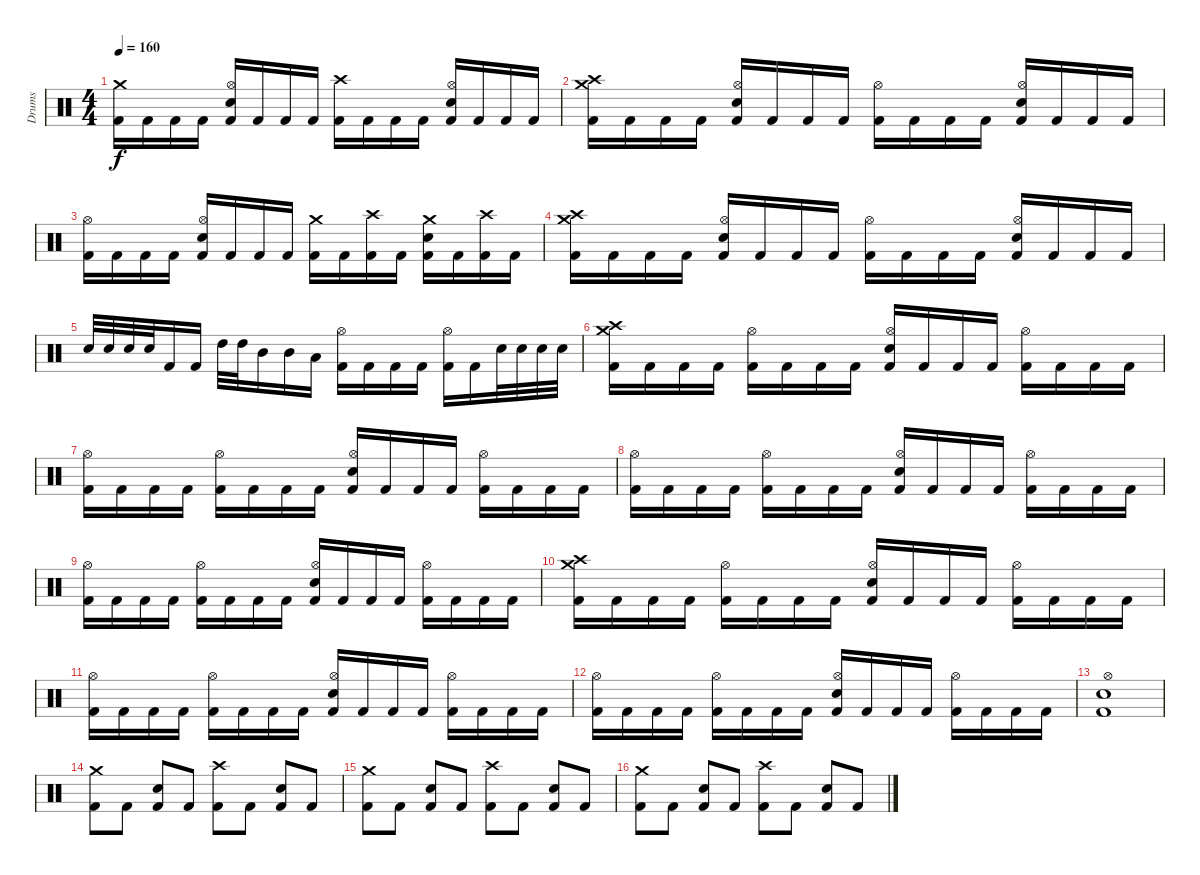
\track ("Drums" "Drums") {instrument percussion}
\staff {score}
\articulation defaults
\ts (4 4)
\tempo 160
\clef neutral
\ks c
("Crash medium (hit)" "Kick (hit) 2").16{dy f} "Kick (hit) 2".16 "Kick (hit) 2".16 "Kick (hit) 2".16 ("Hi-Hat (open)" "Kick (hit) 2" "Snare (hit) 2").16 "Kick (hit) 2".16 "Kick (hit) 2".16 "Kick (hit) 2".16 ("Crash high (hit)" "Kick (hit) 2").16 "Kick (hit) 2".16 "Kick (hit) 2".16 "Kick (hit) 2".16 ("Hi-Hat (open)" "Kick (hit) 2" "Snare (hit) 2").16 "Kick (hit) 2".16 "Kick (hit) 2".16 "Kick (hit) 2".16 |
("Crash medium (hit)" "Crash high (hit)" "Kick (hit) 2").16 "Kick (hit) 2".16 "Kick (hit) 2".16 "Kick (hit) 2".16 ("Hi-Hat (open)" "Kick (hit) 2" "Snare (hit) 2").16 "Kick (hit) 2".16 "Kick (hit) 2".16 "Kick (hit) 2".16 ("Hi-Hat (open)" "Kick (hit) 2").16 "Kick (hit) 2".16 "Kick (hit) 2".16 "Kick (hit) 2".16 ("Hi-Hat (open)" "Kick (hit) 2" "Snare (hit) 2").16 "Kick (hit) 2".16 "Kick (hit) 2".16 "Kick (hit) 2".16 |
("Hi-Hat (open)" "Kick (hit) 2").16 "Kick (hit) 2".16 "Kick (hit) 2".16 "Kick (hit) 2".16 ("Hi-Hat (open)" "Kick (hit) 2" "Snare (hit) 2").16 "Kick (hit) 2".16 "Kick (hit) 2".16 "Kick (hit) 2".16 ("Crash medium (hit)" "Kick (hit) 2").16 "Kick (hit) 2".16 ("Crash high (hit)" "Kick (hit) 2").16 "Kick (hit) 2".16 ("Crash medium (hit)" "Kick (hit) 2" "Snare (hit) 2").16 "Kick (hit) 2".16 ("Crash high (hit)" "Kick (hit) 2").16 "Kick (hit) 2".16 |
("Crash medium (hit)" "Crash high (hit)" "Kick (hit) 2").16 "Kick (hit) 2".16 "Kick (hit) 2".16 "Kick (hit) 2".16 ("Hi-Hat (open)" "Kick (hit) 2" "Snare (hit) 2").16 "Kick (hit) 2".16 "Kick (hit) 2".16 "Kick (hit) 2".16 ("Hi-Hat (open)" "Kick (hit) 2").16 "Kick (hit) 2".16 "Kick (hit) 2".16 "Kick (hit) 2".16 ("Hi-Hat (open)" "Kick (hit) 2" "Snare (hit) 2").16 "Kick (hit) 2".16 "Kick (hit) 2".16 "Kick (hit) 2".16 |
"Snare (hit) 2".32 "Snare (hit) 2".32 "Snare (hit) 2".32 "Snare (hit) 2".32 "Kick (hit) 2".16 "Kick (hit) 2".16 "High Tom (hit)".32 "High Tom (hit)".32 "Mid Tom (hit)".16 "Mid Tom (hit)".16 "Low Tom (hit)".16 ("Hi-Hat (open)" "Kick (hit) 2").16 "Kick (hit) 2".16 "Kick (hit) 2".16 "Kick (hit) 2".16 ("Hi-Hat (open)" "Kick (hit) 2").16 "Kick (hit) 2".16 "Snare (hit) 2".32 "Snare (hit) 2".32 "Snare (hit) 2".32 "Snare (hit) 2".32 |
("Crash medium (hit)" "Crash high (hit)" "Kick (hit) 2").16 "Kick (hit) 2".16 "Kick (hit) 2".16 "Kick (hit) 2".16 ("Hi-Hat (open)" "Kick (hit) 2").16 "Kick (hit) 2".16 "Kick (hit) 2".16 "Kick (hit) 2".16 ("Hi-Hat (open)" "Kick (hit) 2" "Snare (hit) 2").16 "Kick (hit) 2".16 "Kick (hit) 2".16 "Kick (hit) 2".16 ("Hi-Hat (open)" "Kick (hit) 2").16 "Kick (hit) 2".16 "Kick (hit) 2".16 "Kick (hit) 2".16 |
("Hi-Hat (open)" "Kick (hit) 2").16 "Kick (hit) 2".16 "Kick (hit) 2".16 "Kick (hit) 2".16 ("Hi-Hat (open)" "Kick (hit) 2").16 "Kick (hit) 2".16 "Kick (hit) 2".16 "Kick (hit) 2".16 ("Hi-Hat (open)" "Kick (hit) 2" "Snare (hit) 2").16 "Kick (hit) 2".16 "Kick (hit) 2".16 "Kick (hit) 2".16 ("Hi-Hat (open)" "Kick (hit) 2").16 "Kick (hit) 2".16 "Kick (hit) 2".16 "Kick (hit) 2".16 |
("Hi-Hat (open)" "Kick (hit) 2").16 "Kick (hit) 2".16 "Kick (hit) 2".16 "Kick (hit) 2".16 ("Hi-Hat (open)" "Kick (hit) 2").16 "Kick (hit) 2".16 "Kick (hit) 2".16 "Kick (hit) 2".16 ("Hi-Hat (open)" "Kick (hit) 2" "Snare (hit) 2").16 "Kick (hit) 2".16 "Kick (hit) 2".16 "Kick (hit) 2".16 ("Hi-Hat (open)" "Kick (hit) 2").16 "Kick (hit) 2".16 "Kick (hit) 2".16 "Kick (hit) 2".16 |
("Hi-Hat (open)" "Kick (hit) 2").16 "Kick (hit) 2".16 "Kick (hit) 2".16 "Kick (hit) 2".16 ("Hi-Hat (open)" "Kick (hit) 2").16 "Kick (hit) 2".16 "Kick (hit) 2".16 "Kick (hit) 2".16 ("Hi-Hat (open)" "Kick (hit) 2" "Snare (hit) 2").16 "Kick (hit) 2".16 "Kick (hit) 2".16 "Kick (hit) 2".16 ("Hi-Hat (open)" "Kick (hit) 2").16 "Kick (hit) 2".16 "Kick (hit) 2".16 "Kick (hit) 2".16 |
("Crash medium (hit)" "Crash high (hit)" "Kick (hit) 2").16 "Kick (hit) 2".16 "Kick (hit) 2".16 "Kick (hit) 2".16 ("Hi-Hat (open)" "Kick (hit) 2").16 "Kick (hit) 2".16 "Kick (hit) 2".16 "Kick (hit) 2".16 ("Hi-Hat (open)" "Kick (hit) 2" "Snare (hit) 2").16 "Kick (hit) 2".16 "Kick (hit) 2".16 "Kick (hit) 2".16 ("Hi-Hat (open)" "Kick (hit) 2").16 "Kick (hit) 2".16 "Kick (hit) 2".16 "Kick (hit) 2".16 |
("Hi-Hat (open)" "Kick (hit) 2").16 "Kick (hit) 2".16 "Kick (hit) 2".16 "Kick (hit) 2".16 ("Hi-Hat (open)" "Kick (hit) 2").16 "Kick (hit) 2".16 "Kick (hit) 2".16 "Kick (hit) 2".16 ("Hi-Hat (open)" "Kick (hit) 2" "Snare (hit) 2").16 "Kick (hit) 2".16 "Kick (hit) 2".16 "Kick (hit) 2".16 ("Hi-Hat (open)" "Kick (hit) 2").16 "Kick (hit) 2".16 "Kick (hit) 2".16 "Kick (hit) 2".16 |
("Hi-Hat (open)" "Kick (hit) 2").16 "Kick (hit) 2".16 "Kick (hit) 2".16 "Kick (hit) 2".16 ("Hi-Hat (open)" "Kick (hit) 2").16 "Kick (hit) 2".16 "Kick (hit) 2".16 "Kick (hit) 2".16 ("Hi-Hat (open)" "Kick (hit) 2" "Snare (hit) 2").16 "Kick (hit) 2".16 "Kick (hit) 2".16 "Kick (hit) 2".16 ("Hi-Hat (open)" "Kick (hit) 2").16 "Kick (hit) 2".16 "Kick (hit) 2".16 "Kick (hit) 2".16 |
("Hi-Hat (open)" "Kick (hit) 2" "Snare (hit) 2").1 |
("Crash medium (hit)" "Kick (hit) 2").8 "Kick (hit) 2".8 ("Kick (hit) 2" "Snare (hit) 2").8 "Kick (hit) 2".8 ("Crash high (hit)" "Kick (hit) 2").8 "Kick (hit) 2".8 ("Kick (hit) 2" "Snare (hit) 2").8 "Kick (hit) 2".8 |
("Crash medium (hit)" "Kick (hit) 2").8 "Kick (hit) 2".8 ("Kick (hit) 2" "Snare (hit) 2").8 "Kick (hit) 2".8 ("Crash high (hit)" "Kick (hit) 2").8 "Kick (hit) 2".8 ("Kick (hit) 2" "Snare (hit) 2").8 "Kick (hit) 2".8 |
("Crash medium (hit)" "Kick (hit) 2").8 "Kick (hit) 2".8 ("Kick (hit) 2" "Snare (hit) 2").8 "Kick (hit) 2".8 ("Crash high (hit)" "Kick (hit) 2").8 "Kick (hit) 2".8 ("Kick (hit) 2" "Snare (hit) 2").8 "Kick (hit) 2".8
